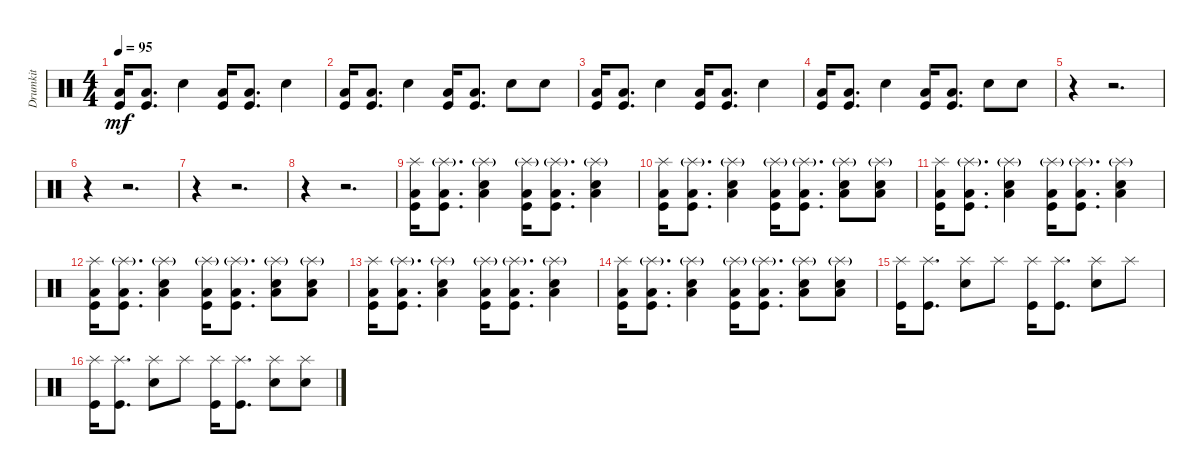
\track ("Drumkit" "Drumkit") {instrument percussion}
\staff {score}
\articulation defaults
\ts (4 4)
\tempo 95
\clef neutral
\ks c
("Kick (hit)" "Low Floor Tom (hit)").16{dy mf} ("Kick (hit)" "Low Floor Tom (hit)").8{d} "Snare (hit) 2".4 ("Kick (hit)" "Low Floor Tom (hit)").16 ("Kick (hit)" "Low Floor Tom (hit)").8{d} "Snare (hit) 2".4 |
("Kick (hit)" "Low Floor Tom (hit)").16 ("Kick (hit)" "Low Floor Tom (hit)").8{d} "Snare (hit) 2".4 ("Kick (hit)" "Low Floor Tom (hit)").16 ("Kick (hit)" "Low Floor Tom (hit)").8{d} "Snare (hit) 2".8 "Snare (hit) 2".8 |
("Kick (hit)" "Low Floor Tom (hit)").16 ("Kick (hit)" "Low Floor Tom (hit)").8{d} "Snare (hit) 2".4 ("Kick (hit)" "Low Floor Tom (hit)").16 ("Kick (hit)" "Low Floor Tom (hit)").8{d} "Snare (hit) 2".4 |
("Kick (hit)" "Low Floor Tom (hit)").16 ("Kick (hit)" "Low Floor Tom (hit)").8{d} "Snare (hit) 2".4 ("Kick (hit)" "Low Floor Tom (hit)").16 ("Kick (hit)" "Low Floor Tom (hit)").8{d} "Snare (hit) 2".8 "Snare (hit) 2".8 |
r.4 r.2{d} |
r.4 r.2{d} |
r.4 r.2{d} |
r.4 r.2{d} |
("Kick (hit)" "Low Floor Tom (hit)" "Splash (hit)").16 ("Kick (hit)" "Low Floor Tom (hit)" "Splash (hit)"{g}).8{d} ("Snare (hit) 2" "Low Floor Tom (hit)" "Splash (hit)"{g}).4 ("Kick (hit)" "Low Floor Tom (hit)" "Splash (hit)"{g}).16 ("Kick (hit)" "Low Floor Tom (hit)" "Splash (hit)"{g}).8{d} ("Snare (hit) 2" "Low Floor Tom (hit)" "Splash (hit)"{g}).4 |
("Kick (hit)" "Low Floor Tom (hit)" "Splash (hit)").16 ("Kick (hit)" "Low Floor Tom (hit)" "Splash (hit)"{g}).8{d} ("Snare (hit) 2" "Low Floor Tom (hit)" "Splash (hit)"{g}).4 ("Kick (hit)" "Low Floor Tom (hit)" "Splash (hit)"{g}).16 ("Kick (hit)" "Low Floor Tom (hit)" "Splash (hit)"{g}).8{d} ("Snare (hit) 2" "Low Floor Tom (hit)" "Splash (hit)"{g}).8 ("Snare (hit) 2" "Splash (hit)"{g} "Low Floor Tom (hit)").8 |
("Kick (hit)" "Low Floor Tom (hit)" "Splash (hit)").16 ("Kick (hit)" "Low Floor Tom (hit)" "Splash (hit)"{g}).8{d} ("Snare (hit) 2" "Low Floor Tom (hit)" "Splash (hit)"{g}).4 ("Kick (hit)" "Low Floor Tom (hit)" "Splash (hit)"{g}).16 ("Kick (hit)" "Low Floor Tom (hit)" "Splash (hit)"{g}).8{d} ("Snare (hit) 2" "Low Floor Tom (hit)" "Splash (hit)"{g}).4 |
("Kick (hit)" "Low Floor Tom (hit)" "Splash (hit)").16 ("Kick (hit)" "Low Floor Tom (hit)" "Splash (hit)"{g}).8{d} ("Snare (hit) 2" "Low Floor Tom (hit)" "Splash (hit)"{g}).4 ("Kick (hit)" "Low Floor Tom (hit)" "Splash (hit)"{g}).16 ("Kick (hit)" "Low Floor Tom (hit)" "Splash (hit)"{g}).8{d} ("Snare (hit) 2" "Low Floor Tom (hit)" "Splash (hit)"{g}).8 ("Snare (hit) 2" "Splash (hit)"{g} "Low Floor Tom (hit)").8 |
("Kick (hit)" "Low Floor Tom (hit)" "Splash (hit)").16 ("Kick (hit)" "Low Floor Tom (hit)" "Splash (hit)"{g}).8{d} ("Snare (hit) 2" "Low Floor Tom (hit)" "Splash (hit)"{g}).4 ("Kick (hit)" "Low Floor Tom (hit)" "Splash (hit)"{g}).16 ("Kick (hit)" "Low Floor Tom (hit)" "Splash (hit)"{g}).8{d} ("Snare (hit) 2" "Low Floor Tom (hit)" "Splash (hit)"{g}).4 |
("Kick (hit)" "Low Floor Tom (hit)" "Splash (hit)").16 ("Kick (hit)" "Low Floor Tom (hit)" "Splash (hit)"{g}).8{d} ("Snare (hit) 2" "Low Floor Tom (hit)" "Splash (hit)"{g}).4 ("Kick (hit)" "Low Floor Tom (hit)" "Splash (hit)"{g}).16 ("Kick (hit)" "Low Floor Tom (hit)" "Splash (hit)"{g}).8{d} ("Snare (hit) 2" "Low Floor Tom (hit)" "Splash (hit)"{g}).8 ("Snare (hit) 2" "Splash (hit)"{g} "Low Floor Tom (hit)").8 |
("Kick (hit)" "Splash (hit)").16 ("Kick (hit)" "Splash (hit)").8{d} ("Snare (hit) 2" "Splash (hit)").8 "Splash (hit)".8 ("Kick (hit)" "Splash (hit)").16 ("Kick (hit)" "Splash (hit)").8{d} ("Snare (hit) 2" "Splash (hit)").8 "Splash (hit)".8 |
("Kick (hit)" "Splash (hit)").16 ("Kick (hit)" "Splash (hit)").8{d} ("Snare (hit) 2" "Splash (hit)").8 "Splash (hit)".8 ("Kick (hit)" "Splash (hit)").16 ("Kick (hit)" "Splash (hit)").8{d} ("Snare (hit) 2" "Splash (hit)").8 ("Splash (hit)" "Snare (hit) 2").8
